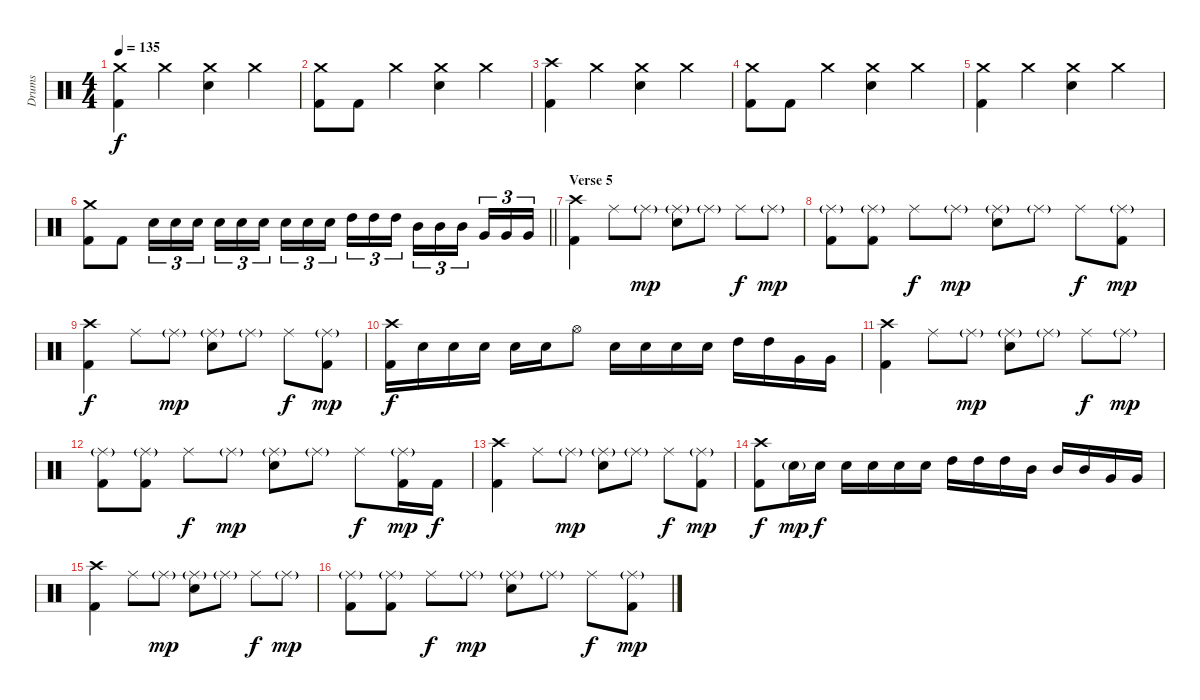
\track ("Drums" "Drums") {instrument percussion}
\staff {score}
\articulation defaults
\ts (4 4)
\tempo 135
\clef neutral
\ks c
("Crash medium (hit)" "Kick (hit) 2").4{dy f} "Crash medium (hit)".4 ("Crash medium (hit)" "Snare (hit) 2").4 "Crash medium (hit)".4 |
("Crash medium (hit)" "Kick (hit) 2").8 "Kick (hit) 2".8 "Crash medium (hit)".4 ("Crash medium (hit)" "Snare (hit) 2").4 "Crash medium (hit)".4 |
("Crash high (hit)" "Kick (hit) 2").4 "Crash medium (hit)".4 ("Crash medium (hit)" "Snare (hit) 2").4 "Crash medium (hit)".4 |
("Crash medium (hit)" "Kick (hit) 2").8 "Kick (hit) 2".8 "Crash medium (hit)".4 ("Crash medium (hit)" "Snare (hit) 2").4 "Crash medium (hit)".4 |
("Crash medium (hit)" "Kick (hit) 2").4 "Crash medium (hit)".4 ("Crash medium (hit)" "Snare (hit) 2").4 "Crash medium (hit)".4 |
\barLineRight lightlight
("Crash medium (hit)" "Kick (hit) 2").8 "Kick (hit) 2".8 "Snare (hit) 2".16{tu (3 2)} "Snare (hit) 2".16{tu (3 2)} "Snare (hit) 2".16{tu (3 2) beam splitsecondary} "Snare (hit) 2".16{tu (3 2)} "Snare (hit) 2".16{tu (3 2)} "Snare (hit) 2".16{tu (3 2)} "Snare (hit) 2".16{tu (3 2)} "Snare (hit) 2".16{tu (3 2)} "Snare (hit) 2".16{tu (3 2) beam splitsecondary} "High Tom (hit)".16{tu (3 2)} "High Tom (hit)".16{tu (3 2)} "High Tom (hit)".16{tu (3 2)} "Mid Tom (hit)".16{tu (3 2)} "Mid Tom (hit)".16{tu (3 2)} "Mid Tom (hit)".16{tu (3 2) beam splitsecondary} "Very Low Tom (hit)".16{tu (3 2)} "Very Low Tom (hit)".16{tu (3 2)} "Very Low Tom (hit)".16{tu (3 2)} |
\section ("" "Verse 5")
("Crash high (hit)" "Kick (hit) 2").4 "Ride (middle)".8 "Ride (middle)"{g}.8{dy mp} ("Ride (middle)"{g} "Snare (hit) 2").8 "Ride (middle)"{g}.8 "Ride (middle)".8{dy f} "Ride (middle)"{g}.8{dy mp} |
("Ride (middle)"{g} "Kick (hit) 2").8 ("Ride (middle)"{g} "Kick (hit) 2").8 "Ride (middle)".8{dy f} "Ride (middle)"{g}.8{dy mp} ("Ride (middle)"{g} "Snare (hit) 2").8 "Ride (middle)"{g}.8 "Ride (middle)".8{dy f} ("Ride (middle)"{g} "Kick (hit) 2").8{dy mp} |
("Crash high (hit)" "Kick (hit) 2").4{dy f} "Ride (middle)".8 "Ride (middle)"{g}.8{dy mp} ("Ride (middle)"{g} "Snare (hit) 2").8 "Ride (middle)"{g}.8 "Ride (middle)".8{dy f} ("Ride (middle)"{g} "Kick (hit) 2").8{dy mp} |
("Crash high (hit)" "Kick (hit) 2").16{dy f} "Snare (hit) 2".16 "Snare (hit) 2".16 "Snare (hit) 2".16 "Snare (hit) 2".16 "Snare (hit) 2".16 "Hi-Hat (open)".8 "Snare (hit) 2".16 "Snare (hit) 2".16 "Snare (hit) 2".16 "Snare (hit) 2".16 "High Tom (hit)".16 "High Tom (hit)".16 "Very Low Tom (hit)".16 "Very Low Tom (hit)".16 |
("Crash high (hit)" "Kick (hit) 2").4 "Ride (middle)".8 "Ride (middle)"{g}.8{dy mp} ("Ride (middle)"{g} "Snare (hit) 2").8 "Ride (middle)"{g}.8 "Ride (middle)".8{dy f} "Ride (middle)"{g}.8{dy mp} |
("Ride (middle)"{g} "Kick (hit) 2").8 ("Ride (middle)"{g} "Kick (hit) 2").8 "Ride (middle)".8{dy f} "Ride (middle)"{g}.8{dy mp} ("Ride (middle)"{g} "Snare (hit) 2").8 "Ride (middle)"{g}.8 "Ride (middle)".8{dy f} ("Ride (middle)"{g} "Kick (hit) 2").16{dy mp} "Kick (hit) 2".16{dy f} |
("Crash high (hit)" "Kick (hit) 2").4 "Ride (middle)".8 "Ride (middle)"{g}.8{dy mp} ("Ride (middle)"{g} "Snare (hit) 2").8 "Ride (middle)"{g}.8 "Ride (middle)".8{dy f} ("Ride (middle)"{g} "Kick (hit) 2").8{dy mp} |
("Crash high (hit)" "Kick (hit) 2").8{dy f} "Snare (hit) 2"{g}.16{dy mp} "Snare (hit) 2".16{dy f} "Snare (hit) 2".16 "Snare (hit) 2".16 "Snare (hit) 2".16 "Snare (hit) 2".16 "High Tom (hit)".16 "High Tom (hit)".16 "High Tom (hit)".16 "Mid Tom (hit)".16 "Mid Tom (hit)".16 "Mid Tom (hit)".16 "Very Low Tom (hit)".16 "Very Low Tom (hit)".16 |
("Crash high (hit)" "Kick (hit) 2").4 "Ride (middle)".8 "Ride (middle)"{g}.8{dy mp} ("Ride (middle)"{g} "Snare (hit) 2").8 "Ride (middle)"{g}.8 "Ride (middle)".8{dy f} "Ride (middle)"{g}.8{dy mp} |
("Ride (middle)"{g} "Kick (hit) 2").8 ("Ride (middle)"{g} "Kick (hit) 2").8 "Ride (middle)".8{dy f} "Ride (middle)"{g}.8{dy mp} ("Ride (middle)"{g} "Snare (hit) 2").8 "Ride (middle)"{g}.8 "Ride (middle)".8{dy f} ("Ride (middle)"{g} "Kick (hit) 2").8{dy mp}
